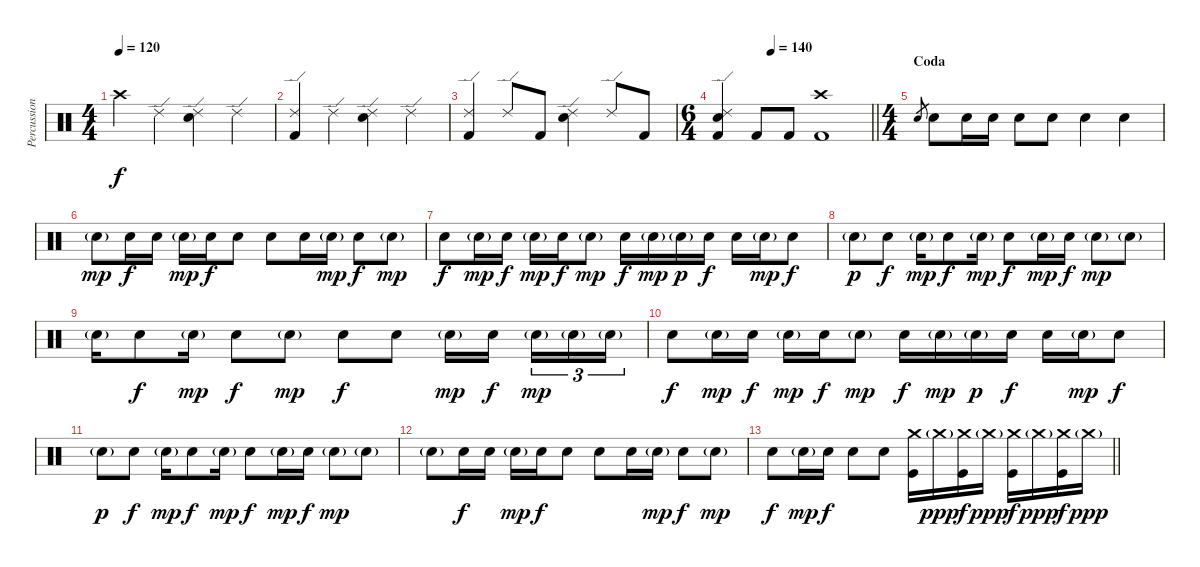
\track ("Percussion" "Percussion") {instrument percussion}
\staff {score}
\articulation defaults
\ts (4 4)
\tempo 120
\clef neutral
\ks c "Crash high (hit)".4{dy f} "Ride (edge) 2".4
("Ride (edge) 2" "Snare (hit) 2").4 "Ride (edge) 2".4 |
("Ride (edge) 2" "Kick (hit) 2").4 "Ride (edge) 2".4 ("Ride (edge) 2" "Snare (hit) 2").4 "Ride (edge) 2".4 |
("Ride (edge) 2" "Kick (hit) 2").4 "Ride (edge) 2".8 "Kick (hit) 2".8 ("Ride (edge) 2" "Snare (hit) 2").4 "Ride (edge) 2".8 "Kick (hit) 2".8 |
\ts (6 4)
\tempo (140 0.3333333333333333)
\barLineRight lightlight
("Ride (edge) 2" "Snare (hit) 2" "Kick (hit) 2").4 "Kick (hit) 2".8 "Kick (hit) 2".8 ("Crash high (hit)" "Kick (hit) 2").1 |
\ts (4 4)
\section ("" "Coda")
"Electric Snare (hit)".8{gr} "Electric Snare (hit)".8 "Electric Snare (hit)".16 "Electric Snare (hit)".16 "Electric Snare (hit)".8 "Electric Snare (hit)".8 "Electric Snare (hit)".4 "Electric Snare (hit)".4 |
"Electric Snare (hit)"{g}.8{dy mp} "Electric Snare (hit)".16{dy f} "Electric Snare (hit)".16 "Electric Snare (hit)"{g}.16{dy mp} "Electric Snare (hit)".16{dy f} "Electric Snare (hit)".8 "Electric Snare (hit)".8 "Electric Snare (hit)".16 "Electric Snare (hit)"{g}.16{dy mp} "Electric Snare (hit)".8{dy f} "Electric Snare (hit)"{g}.8{dy mp} |
"Electric Snare (hit)".8{dy f} "Electric Snare (hit)"{g}.16{dy mp} "Electric Snare (hit)".16{dy f} "Electric Snare (hit)"{g}.16{dy mp} "Electric Snare (hit)".16{dy f} "Electric Snare (hit)"{g}.8{dy mp} "Electric Snare (hit)".16{dy f} "Electric Snare (hit)"{g}.16{dy mp} "Electric Snare (hit)"{g}.16{dy p} "Electric Snare (hit)".16{dy f} "Electric Snare (hit)".16 "Electric Snare (hit)"{g}.16{dy mp} "Electric Snare (hit)".8{dy f} |
"Electric Snare (hit)"{g}.8{dy p} "Electric Snare (hit)".8{dy f} "Electric Snare (hit)"{g}.16{dy mp} "Electric Snare (hit)".8{dy f} "Electric Snare (hit)"{g}.16{dy mp} "Electric Snare (hit)".8{dy f} "Electric Snare (hit)"{g}.16{dy mp} "Electric Snare (hit)".16{dy f} "Electric Snare (hit)"{g}.8{dy mp} "Electric Snare (hit)"{g}.8 |
"Electric Snare (hit)"{g}.16 "Electric Snare (hit)".8{dy f} "Electric Snare (hit)"{g}.16{dy mp} "Electric Snare (hit)".8{dy f} "Electric Snare (hit)"{g}.8{dy mp} "Electric Snare (hit)".8{dy f} "Electric Snare (hit)".8 "Electric Snare (hit)"{g}.16{dy mp} "Electric Snare (hit)".16{dy f} "Electric Snare (hit)"{g}.16{tu (3 2) dy mp} "Electric Snare (hit)"{g}.16{tu (3 2)} "Electric Snare (hit)"{g}.16{tu (3 2)} |
"Electric Snare (hit)".8{dy f} "Electric Snare (hit)"{g}.16{dy mp} "Electric Snare (hit)".16{dy f} "Electric Snare (hit)"{g}.16{dy mp} "Electric Snare (hit)".16{dy f} "Electric Snare (hit)"{g}.8{dy mp} "Electric Snare (hit)".16{dy f} "Electric Snare (hit)"{g}.16{dy mp} "Electric Snare (hit)"{g}.16{dy p} "Electric Snare (hit)".16{dy f} "Electric Snare (hit)".16 "Electric Snare (hit)"{g}.16{dy mp} "Electric Snare (hit)".8{dy f} |
"Electric Snare (hit)"{g}.8{dy p} "Electric Snare (hit)".8{dy f} "Electric Snare (hit)"{g}.16{dy mp} "Electric Snare (hit)".8{dy f} "Electric Snare (hit)"{g}.16{dy mp} "Electric Snare (hit)".8{dy f} "Electric Snare (hit)"{g}.16{dy mp} "Electric Snare (hit)".16{dy f} "Electric Snare (hit)"{g}.8{dy mp} "Electric Snare (hit)"{g}.8 |
"Electric Snare (hit)"{g}.8 "Electric Snare (hit)".16{dy f} "Electric Snare (hit)".16 "Electric Snare (hit)"{g}.16{dy mp} "Electric Snare (hit)".16{dy f} "Electric Snare (hit)".8 "Electric Snare (hit)".8 "Electric Snare (hit)".16 "Electric Snare (hit)"{g}.16{dy mp} "Electric Snare (hit)".8{dy f} "Electric Snare (hit)"{g}.8{dy mp} |
\barLineRight lightlight "Electric Snare (hit)".8{dy f} "Electric Snare (hit)"{g}.16{dy mp} "Electric Snare (hit)".16{dy f} "Electric Snare (hit)".8 "Electric Snare (hit)".8
("Crash medium (hit)" "Kick (hit)").16 "Crash medium (hit)"{g}.16{dy ppp} ("Crash medium (hit)" "Kick (hit)").16{dy f} "Crash medium (hit)"{g}.16{dy ppp} ("Crash medium (hit)" "Kick (hit)").16{dy f} "Crash medium (hit)"{g}.16{dy ppp} ("Crash medium (hit)" "Kick (hit)").16{dy f} "Crash medium (hit)"{g}.16{dy ppp}
